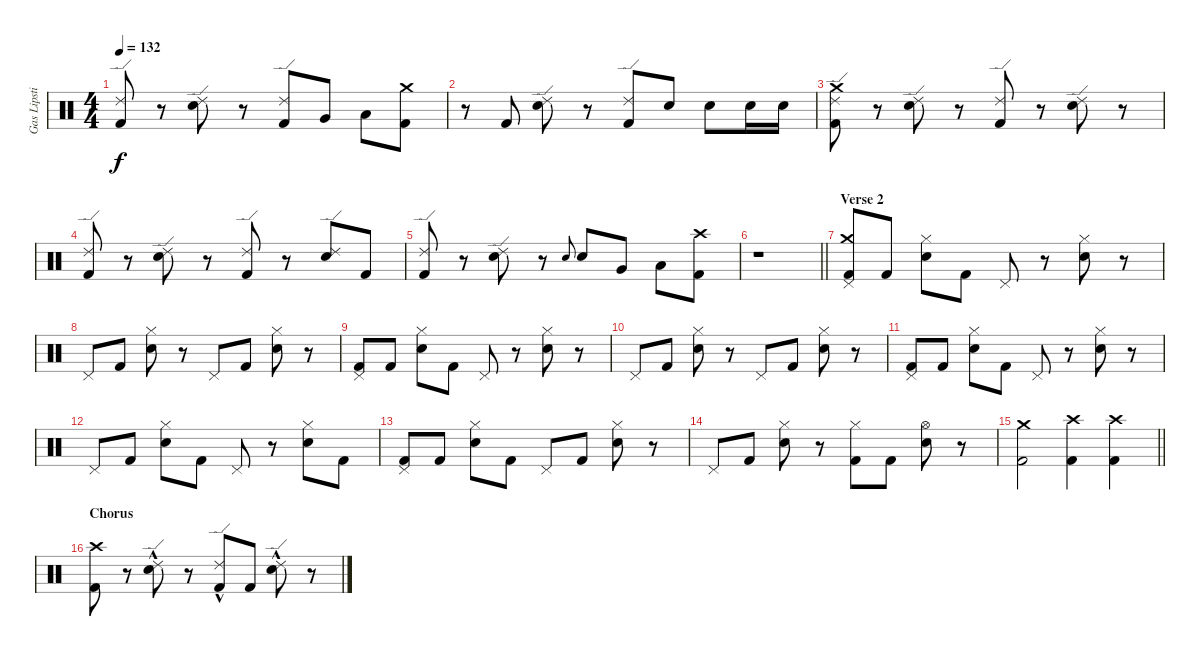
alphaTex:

\track ("Gas Lipstick (Drums)" "Gas Lipsti") {instrument percussion}
\staff {score}
\articulation defaults
\ts (4 4)
\tempo 132
\clef neutral
\ks c
("Ride (edge) 2" "Kick (hit) 2").8{dy f} r.8 ("Ride (edge) 2" "Snare (hit) 2").8 r.8 ("Ride (edge) 2" "Kick (hit) 2").8 "Very Low Tom (hit)".8 "Low Floor Tom (hit)".8 ("Crash medium (hit)" "Kick (hit) 2").8 |
r.8 "Kick (hit) 2".8 ("Ride (edge) 2" "Snare (hit) 2").8 r.8 ("Ride (edge) 2" "Kick (hit) 2").8 "Snare (hit) 2".8 "Snare (hit) 2".8 "Snare (hit) 2".16 "Snare (hit) 2".16 |
("Crash medium (hit)" "Ride (edge) 2" "Kick (hit) 2").8 r.8 ("Ride (edge) 2" "Snare (hit) 2").8 r.8 ("Ride (edge) 2" "Kick (hit) 2").8 r.8 ("Ride (edge) 2" "Snare (hit) 2").8 r.8 |
("Ride (edge) 2" "Kick (hit) 2").8 r.8 ("Ride (edge) 2" "Snare (hit) 2").8 r.8 ("Ride (edge) 2" "Kick (hit) 2").8 r.8 ("Ride (edge) 2" "Snare (hit) 2").8 "Kick (hit) 2".8 |
("Ride (edge) 2" "Kick (hit) 2").8 r.8 ("Ride (edge) 2" "Snare (hit) 2").8 r.8 "Snare (hit) 2".8{gr onbeat} "Snare (hit) 2".8 "Very Low Tom (hit)".8 "Low Floor Tom (hit)".8 ("Crash high (hit)" "Kick (hit) 2").8 |
\barLineRight lightlight
r.1 |
\section ("" "Verse 2")
("Crash medium (hit)" "Pedal Hi-Hat (hit)" "Kick (hit) 2").8 "Kick (hit) 2".8 ("Hi-Hat (closed)" "Snare (hit) 2").8 "Kick (hit) 2".8 "Pedal Hi-Hat (hit)".8 r.8 ("Hi-Hat (closed)" "Snare (hit) 2").8 r.8 |
"Pedal Hi-Hat (hit)".8 "Kick (hit) 2".8 ("Hi-Hat (closed)" "Snare (hit) 2").8 r.8 "Pedal Hi-Hat (hit)".8 "Kick (hit) 2".8 ("Hi-Hat (closed)" "Snare (hit) 2").8 r.8 |
("Pedal Hi-Hat (hit)" "Kick (hit) 2").8 "Kick (hit) 2".8 ("Hi-Hat (closed)" "Snare (hit) 2").8 "Kick (hit) 2".8 "Pedal Hi-Hat (hit)".8 r.8 ("Hi-Hat (closed)" "Snare (hit) 2").8 r.8 |
"Pedal Hi-Hat (hit)".8 "Kick (hit) 2".8 ("Hi-Hat (closed)" "Snare (hit) 2").8 r.8 "Pedal Hi-Hat (hit)".8 "Kick (hit) 2".8 ("Hi-Hat (closed)" "Snare (hit) 2").8 r.8 |
("Pedal Hi-Hat (hit)" "Kick (hit) 2").8 "Kick (hit) 2".8 ("Hi-Hat (closed)" "Snare (hit) 2").8 "Kick (hit) 2".8 "Pedal Hi-Hat (hit)".8 r.8 ("Hi-Hat (closed)" "Snare (hit) 2").8 r.8 |
"Pedal Hi-Hat (hit)".8 "Kick (hit) 2".8 ("Hi-Hat (closed)" "Snare (hit) 2").8 "Kick (hit) 2".8 "Pedal Hi-Hat (hit)".8 r.8 ("Hi-Hat (closed)" "Snare (hit) 2").8 "Kick (hit) 2".8 |
("Pedal Hi-Hat (hit)" "Kick (hit) 2").8 "Kick (hit) 2".8 ("Hi-Hat (closed)" "Snare (hit) 2").8 "Kick (hit) 2".8 "Pedal Hi-Hat (hit)".8 "Kick (hit) 2".8 ("Hi-Hat (closed)" "Snare (hit) 2").8 r.8 |
"Pedal Hi-Hat (hit)".8 "Kick (hit) 2".8 ("Hi-Hat (closed)" "Snare (hit) 2").8 r.8 ("Hi-Hat (closed)" "Kick (hit) 2").8 "Kick (hit) 2".8 ("Hi-Hat (open)" "Snare (hit) 2").8 r.8 |
\barLineRight lightlight
("Crash medium (hit)" "Kick (hit) 2").2 ("Crash high (hit)" "Kick (hit) 2").4 ("Crash high (hit)" "Kick (hit) 2").4 |
\section ("" "Chorus")
("Crash high (hit)" "Kick (hit) 2").8 r.8 ("Ride (edge) 2"{hac} "Snare (hit) 2").8 r.8 ("Ride (edge) 2"{hac} "Kick (hit) 2").8 "Kick (hit) 2".8 ("Ride (edge) 2"{hac} "Snare (hit) 2").8 r.8
